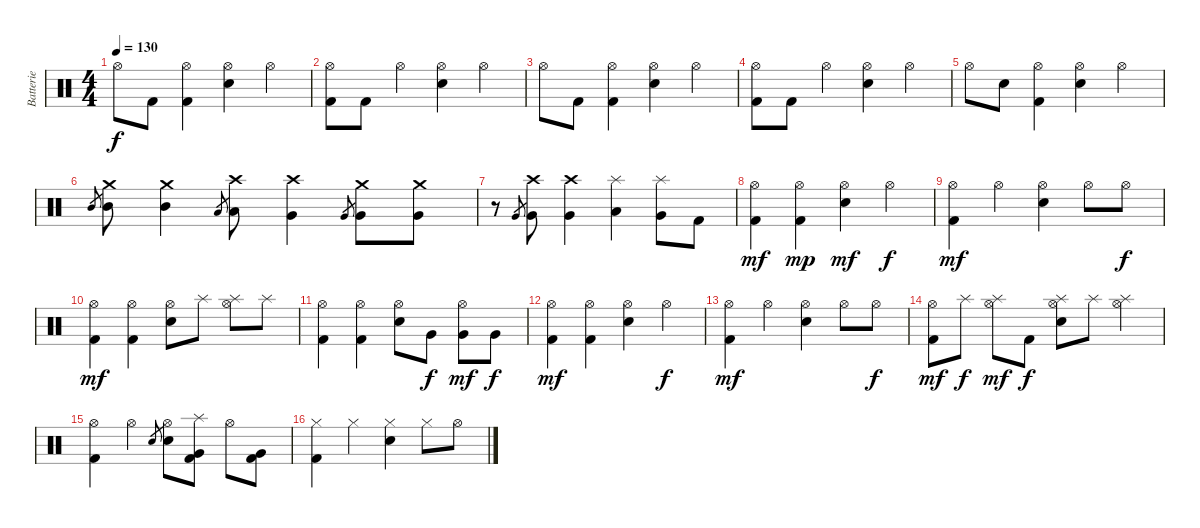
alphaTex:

\track ("Batterie" "Batterie") {instrument percussion}
\staff {score}
\articulation defaults
\ts (4 4)
\tempo 130
\clef neutral
\ks c "Hi-Hat (open)".8{dy f} "Kick (hit) 2".8
("Hi-Hat (open)" "Kick (hit) 2").4 ("Hi-Hat (open)" "Electric Snare (hit)").4 "Hi-Hat (open)".4 |
("Hi-Hat (open)" "Kick (hit) 2").8 "Kick (hit) 2".8 "Hi-Hat (open)".4 ("Hi-Hat (open)" "Electric Snare (hit)").4 "Hi-Hat (open)".4 |
"Hi-Hat (open)".8 "Kick (hit) 2".8 ("Hi-Hat (open)" "Kick (hit) 2").4 ("Hi-Hat (open)" "Electric Snare (hit)").4 "Hi-Hat (open)".4 |
("Hi-Hat (open)" "Kick (hit) 2").8 "Kick (hit) 2".8 "Hi-Hat (open)".4 ("Hi-Hat (open)" "Electric Snare (hit)").4 "Hi-Hat (open)".4 |
"Hi-Hat (open)".8 "Electric Snare (hit)".8 ("Hi-Hat (open)" "Kick (hit) 2").4 ("Hi-Hat (open)" "Electric Snare (hit)").4 "Hi-Hat (open)".4 |
"Mid Tom (hit)".8{gr} ("Crash medium (hit)" "Mid Tom (hit)").8 ("Crash medium (hit)" "Mid Tom (hit)").4 "Low Tom (hit)".8{gr} ("Crash high (hit)" "Low Tom (hit)").8 ("Crash high (hit)" "Very Low Tom (hit)").4 "Very Low Tom (hit)".8{gr} ("Crash medium (hit)" "Very Low Tom (hit)").8 ("Crash medium (hit)" "Very Low Tom (hit)").8 |
r.8 "Very Low Tom (hit)".8{gr} ("Crash high (hit)" "Very Low Tom (hit)").8 ("Crash high (hit)" "Very Low Tom (hit)").4 ("Splash (hit)" "Low Tom (hit)").4 ("Splash (hit)" "Very Low Tom (hit)").8 "Kick (hit) 2".8 |
("Hi-Hat (open)" "Kick (hit) 2").4{dy mf} ("Hi-Hat (open)" "Kick (hit) 2").4{dy mp} ("Hi-Hat (open)" "Electric Snare (hit)").4{dy mf} "Hi-Hat (open)".4{dy f} |
("Hi-Hat (open)" "Kick (hit) 2").4{dy mf} "Hi-Hat (open)".4 ("Hi-Hat (open)" "Electric Snare (hit)").4 "Hi-Hat (open)".8 "Hi-Hat (open)".8{dy f} |
("Hi-Hat (open)" "Kick (hit) 2").4{dy mf} ("Hi-Hat (open)" "Kick (hit) 2").4 ("Hi-Hat (open)" "Electric Snare (hit)").8 "Splash (hit)".8 ("Hi-Hat (open)" "Splash (hit)").8 "Splash (hit)".8 |
("Hi-Hat (open)" "Kick (hit) 2").4 ("Hi-Hat (open)" "Kick (hit) 2").4 ("Hi-Hat (open)" "Electric Snare (hit)").8 "Very Low Tom (hit)".8{dy f} ("Hi-Hat (open)" "Very Low Tom (hit)").8{dy mf} "Very Low Tom (hit)".8{dy f} |
("Hi-Hat (open)" "Kick (hit) 2").4{dy mf} ("Hi-Hat (open)" "Kick (hit) 2").4 ("Hi-Hat (open)" "Electric Snare (hit)").4 "Hi-Hat (open)".4{dy f} |
("Hi-Hat (open)" "Kick (hit) 2").4{dy mf} "Hi-Hat (open)".4 ("Hi-Hat (open)" "Electric Snare (hit)").4 "Hi-Hat (open)".8 "Hi-Hat (open)".8{dy f} |
("Hi-Hat (open)" "Kick (hit) 2").8{dy mf} "Splash (hit)".8{dy f} ("Hi-Hat (open)" "Splash (hit)").8{dy mf} "Kick (hit) 2".8{dy f} ("Hi-Hat (open)" "Splash (hit)" "Electric Snare (hit)").8 "Splash (hit)".8 ("Hi-Hat (open)" "Splash (hit)").4 |
("Hi-Hat (open)" "Kick (hit) 2").4 "Hi-Hat (open)".4 "Electric Snare (hit)".8{gr} ("Hi-Hat (open)" "Electric Snare (hit)").8 ("Splash (hit)" "Very Low Tom (hit)" "Kick (hit) 2").8 "Hi-Hat (open)".8 ("Very Low Tom (hit)" "Kick (hit) 2").8 |
("Hi-Hat (closed)" "Kick (hit) 2").4 "Hi-Hat (closed)".4 ("Hi-Hat (closed)" "Electric Snare (hit)").4 "Hi-Hat (closed)".8 "Hi-Hat (open)".8
